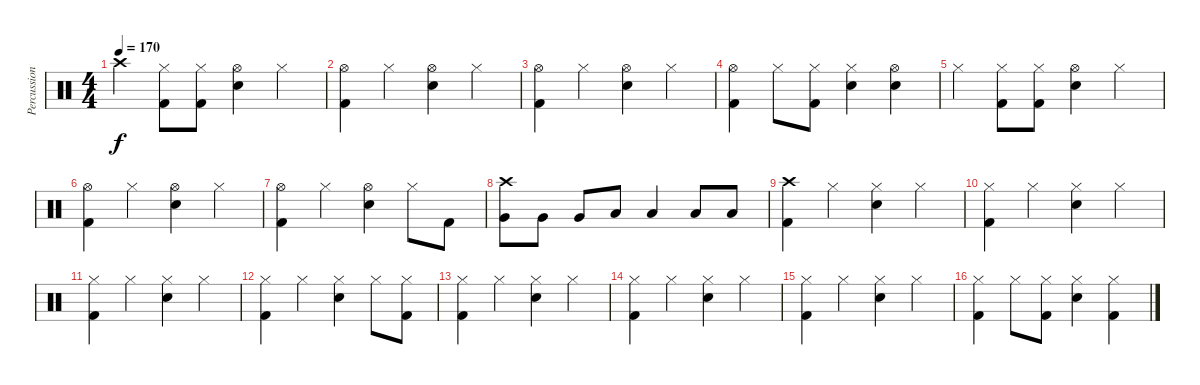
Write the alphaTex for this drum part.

\track ("Percussion" "Percussion") {instrument percussion}
\staff {score}
\articulation defaults
\ts (4 4)
\tempo 170
\clef neutral
\ks c "Crash high (hit)".4{dy f}
("Hi-Hat (closed)" "Kick (hit) 2").8 ("Hi-Hat (closed)" "Kick (hit) 2").8 ("Hi-Hat (open)" "Snare (hit) 2").4 "Hi-Hat (closed)".4 |
("Hi-Hat (open)" "Kick (hit) 2").4 "Hi-Hat (closed)".4 ("Hi-Hat (open)" "Snare (hit) 2").4 "Hi-Hat (closed)".4 |
("Hi-Hat (open)" "Kick (hit) 2").4 "Hi-Hat (closed)".4 ("Hi-Hat (open)" "Snare (hit) 2").4 "Hi-Hat (closed)".4 |
("Hi-Hat (open)" "Kick (hit) 2").4 "Hi-Hat (closed)".8 ("Hi-Hat (closed)" "Kick (hit) 2").8 ("Hi-Hat (closed)" "Snare (hit) 2").4 ("Hi-Hat (open)" "Snare (hit) 2").4 |
"Hi-Hat (closed)".4 ("Hi-Hat (closed)" "Kick (hit) 2").8 ("Hi-Hat (closed)" "Kick (hit) 2").8 ("Hi-Hat (open)" "Snare (hit) 2").4 "Hi-Hat (closed)".4 |
("Hi-Hat (open)" "Kick (hit) 2").4 "Hi-Hat (closed)".4 ("Hi-Hat (open)" "Snare (hit) 2").4 "Hi-Hat (closed)".4 |
("Hi-Hat (open)" "Kick (hit) 2").4 "Hi-Hat (closed)".4 ("Hi-Hat (open)" "Snare (hit) 2").4 "Hi-Hat (closed)".8 "Kick (hit) 2".8 |
("Very Low Tom (hit)" "Crash high (hit)").8 "Very Low Tom (hit)".8 "Very Low Tom (hit)".8 "Low Tom (hit)".8 "Low Tom (hit)".4 "Low Tom (hit)".8 "Low Tom (hit)".8 |
("Crash high (hit)" "Kick (hit) 2").4 "Hi-Hat (closed)".4 ("Hi-Hat (closed)" "Snare (hit) 2").4 "Hi-Hat (closed)".4 |
("Hi-Hat (closed)" "Kick (hit) 2").4 "Hi-Hat (closed)".4 ("Hi-Hat (closed)" "Snare (hit) 2").4 "Hi-Hat (closed)".4 |
("Hi-Hat (closed)" "Kick (hit) 2").4 "Hi-Hat (closed)".4 ("Hi-Hat (closed)" "Snare (hit) 2").4 "Hi-Hat (closed)".4 |
("Hi-Hat (closed)" "Kick (hit) 2").4 "Hi-Hat (closed)".4 ("Hi-Hat (closed)" "Snare (hit) 2").4 "Hi-Hat (closed)".8 ("Hi-Hat (closed)" "Kick (hit) 2").8 |
("Hi-Hat (closed)" "Kick (hit) 2").4 "Hi-Hat (closed)".4 ("Hi-Hat (closed)" "Snare (hit) 2").4 "Hi-Hat (closed)".4 |
("Hi-Hat (closed)" "Kick (hit) 2").4 "Hi-Hat (closed)".4 ("Hi-Hat (closed)" "Snare (hit) 2").4 "Hi-Hat (closed)".4 |
("Hi-Hat (closed)" "Kick (hit) 2").4 "Hi-Hat (closed)".4 ("Hi-Hat (closed)" "Snare (hit) 2").4 "Hi-Hat (closed)".4 |
("Hi-Hat (closed)" "Kick (hit) 2").4 "Hi-Hat (closed)".8 ("Hi-Hat (closed)" "Kick (hit) 2").8 ("Hi-Hat (closed)" "Snare (hit) 2").4 ("Hi-Hat (closed)" "Kick (hit) 2").4
